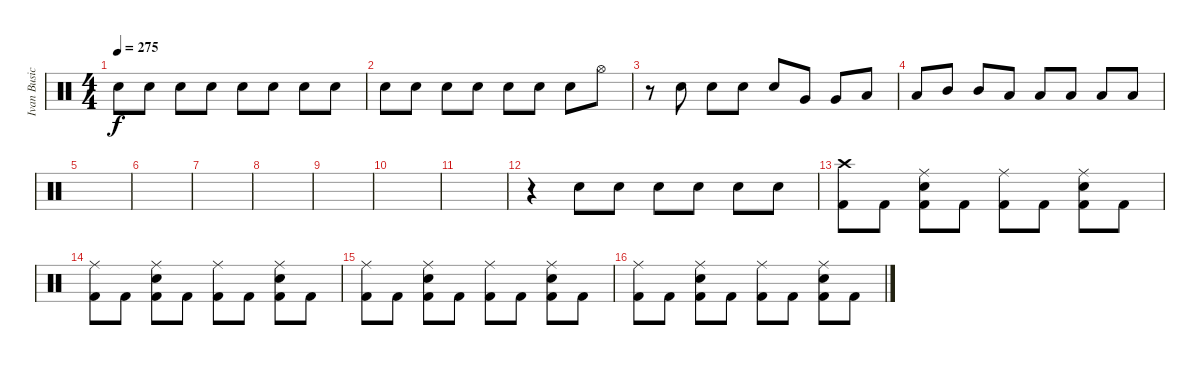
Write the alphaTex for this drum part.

\track ("Ivan Busic" "Ivan Busic") {instrument percussion}
\staff {score}
\articulation defaults
\ts (4 4)
\tempo 275
\clef neutral
\ks c "Electric Snare (hit)".8{dy f} "Electric Snare (hit)".8 "Electric Snare (hit)".8 "Electric Snare (hit)".8 "Electric Snare (hit)".8 "Electric Snare (hit)".8 "Electric Snare (hit)".8 "Electric Snare (hit)".8
|
"Electric Snare (hit)".8 "Electric Snare (hit)".8 "Electric Snare (hit)".8 "Electric Snare (hit)".8 "Electric Snare (hit)".8 "Electric Snare (hit)".8 "Electric Snare (hit)".8 "Hi-Hat (open)".8 |
r.8 "Electric Snare (hit)".8 "Electric Snare (hit)".8 "Electric Snare (hit)".8 "Electric Snare (hit)".8 "Very Low Tom (hit)".8 "Very Low Tom (hit)".8 "Low Tom (hit)".8 |
"Low Tom (hit)".8 "Mid Tom (hit)".8 "Mid Tom (hit)".8 "Low Tom (hit)".8 "Low Tom (hit)".8 "Low Tom (hit)".8 "Low Tom (hit)".8 "Low Tom (hit)".8 |
|
|
|
|
|
|
|
r.4 "Electric Snare (hit)".8 "Electric Snare (hit)".8 "Electric Snare (hit)".8 "Electric Snare (hit)".8 "Electric Snare (hit)".8 "Electric Snare (hit)".8 |
("Crash high (hit)" "Kick (hit) 2").8 "Kick (hit) 2".8 ("Ride (middle)" "Electric Snare (hit)" "Kick (hit) 2").8 "Kick (hit) 2".8 ("Ride (middle)" "Kick (hit) 2").8 "Kick (hit) 2".8 ("Ride (middle)" "Electric Snare (hit)" "Kick (hit) 2").8 "Kick (hit) 2".8 |
("Ride (middle)" "Kick (hit) 2").8 "Kick (hit) 2".8 ("Ride (middle)" "Electric Snare (hit)" "Kick (hit) 2").8 "Kick (hit) 2".8 ("Ride (middle)" "Kick (hit) 2").8 "Kick (hit) 2".8 ("Ride (middle)" "Electric Snare (hit)" "Kick (hit) 2").8 "Kick (hit) 2".8 |
("Ride (middle)" "Kick (hit) 2").8 "Kick (hit) 2".8 ("Ride (middle)" "Electric Snare (hit)" "Kick (hit) 2").8 "Kick (hit) 2".8 ("Ride (middle)" "Kick (hit) 2").8 "Kick (hit) 2".8 ("Ride (middle)" "Electric Snare (hit)" "Kick (hit) 2").8 "Kick (hit) 2".8 |
("Ride (middle)" "Kick (hit) 2").8 "Kick (hit) 2".8 ("Ride (middle)" "Electric Snare (hit)" "Kick (hit) 2").8 "Kick (hit) 2".8 ("Ride (middle)" "Kick (hit) 2").8 "Kick (hit) 2".8 ("Ride (middle)" "Electric Snare (hit)" "Kick (hit) 2").8 "Kick (hit) 2".8
